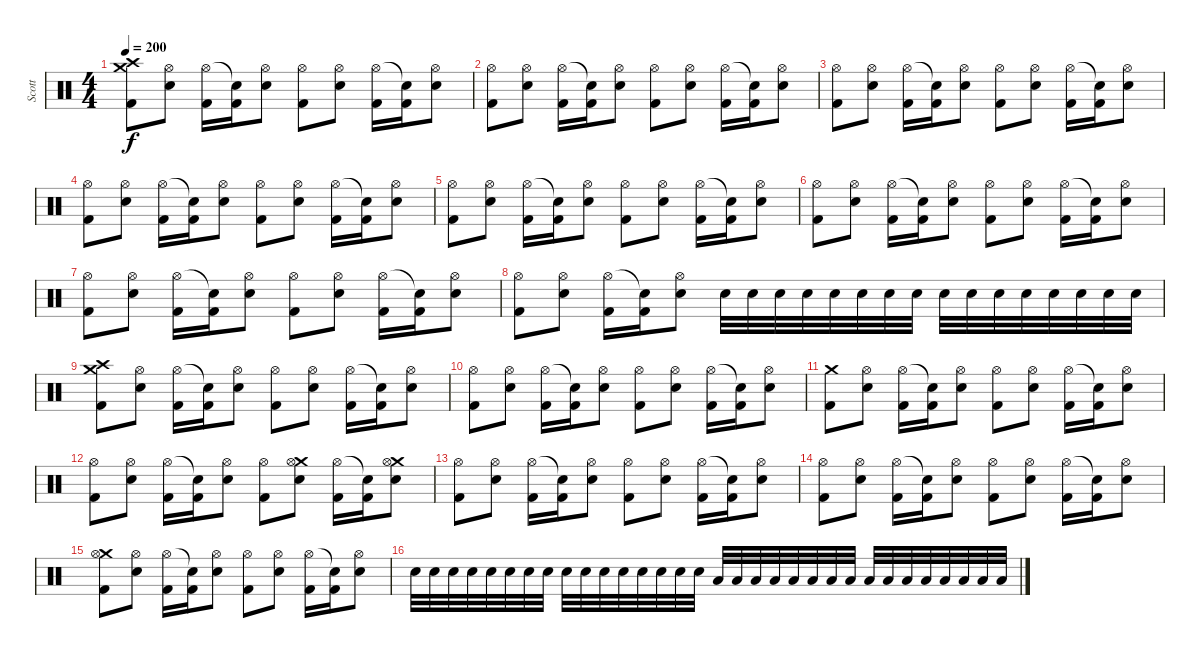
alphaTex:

\track ("Scott" "Scott") {instrument percussion}
\staff {score}
\articulation defaults
\ts (4 4)
\tempo 200
\clef neutral
\ks c
("Crash medium (hit)" "Crash high (hit)" "Kick (hit) 2").8{dy f} ("Hi-Hat (open)" "Snare (hit) 2").8 ("Hi-Hat (open)" "Kick (hit) 2").16 ("Snare (hit)"{t} "Kick (hit) 2").16 ("Hi-Hat (open)" "Snare (hit) 2").8 ("Hi-Hat (open)" "Kick (hit) 2").8 ("Hi-Hat (open)" "Snare (hit) 2").8 ("Hi-Hat (open)" "Kick (hit) 2").16 ("Snare (hit)"{t} "Kick (hit) 2").16 ("Hi-Hat (open)" "Snare (hit) 2").8 |
("Hi-Hat (open)" "Kick (hit) 2").8 ("Hi-Hat (open)" "Snare (hit) 2").8 ("Hi-Hat (open)" "Kick (hit) 2").16 ("Snare (hit)"{t} "Kick (hit) 2").16 ("Hi-Hat (open)" "Snare (hit) 2").8 ("Hi-Hat (open)" "Kick (hit) 2").8 ("Hi-Hat (open)" "Snare (hit) 2").8 ("Hi-Hat (open)" "Kick (hit) 2").16 ("Snare (hit)"{t} "Kick (hit) 2").16 ("Hi-Hat (open)" "Snare (hit) 2").8 |
("Hi-Hat (open)" "Kick (hit) 2").8 ("Hi-Hat (open)" "Snare (hit) 2").8 ("Hi-Hat (open)" "Kick (hit) 2").16 ("Snare (hit)"{t} "Kick (hit) 2").16 ("Hi-Hat (open)" "Snare (hit) 2").8 ("Hi-Hat (open)" "Kick (hit) 2").8 ("Hi-Hat (open)" "Snare (hit) 2").8 ("Hi-Hat (open)" "Kick (hit) 2").16 ("Snare (hit)"{t} "Kick (hit) 2").16 ("Hi-Hat (open)" "Snare (hit) 2").8 |
("Hi-Hat (open)" "Kick (hit) 2").8 ("Hi-Hat (open)" "Snare (hit) 2").8 ("Hi-Hat (open)" "Kick (hit) 2").16 ("Snare (hit)"{t} "Kick (hit) 2").16 ("Hi-Hat (open)" "Snare (hit) 2").8 ("Hi-Hat (open)" "Kick (hit) 2").8 ("Hi-Hat (open)" "Snare (hit) 2").8 ("Hi-Hat (open)" "Kick (hit) 2").16 ("Snare (hit)"{t} "Kick (hit) 2").16 ("Hi-Hat (open)" "Snare (hit) 2").8 |
("Hi-Hat (open)" "Kick (hit) 2").8 ("Hi-Hat (open)" "Snare (hit) 2").8 ("Hi-Hat (open)" "Kick (hit) 2").16 ("Snare (hit)"{t} "Kick (hit) 2").16 ("Hi-Hat (open)" "Snare (hit) 2").8 ("Hi-Hat (open)" "Kick (hit) 2").8 ("Hi-Hat (open)" "Snare (hit) 2").8 ("Hi-Hat (open)" "Kick (hit) 2").16 ("Snare (hit)"{t} "Kick (hit) 2").16 ("Hi-Hat (open)" "Snare (hit) 2").8 |
("Hi-Hat (open)" "Kick (hit) 2").8 ("Hi-Hat (open)" "Snare (hit) 2").8 ("Hi-Hat (open)" "Kick (hit) 2").16 ("Snare (hit)"{t} "Kick (hit) 2").16 ("Hi-Hat (open)" "Snare (hit) 2").8 ("Hi-Hat (open)" "Kick (hit) 2").8 ("Hi-Hat (open)" "Snare (hit) 2").8 ("Hi-Hat (open)" "Kick (hit) 2").16 ("Snare (hit)"{t} "Kick (hit) 2").16 ("Hi-Hat (open)" "Snare (hit) 2").8 |
("Hi-Hat (open)" "Kick (hit) 2").8 ("Hi-Hat (open)" "Snare (hit) 2").8 ("Hi-Hat (open)" "Kick (hit) 2").16 ("Snare (hit)"{t} "Kick (hit) 2").16 ("Hi-Hat (open)" "Snare (hit) 2").8 ("Hi-Hat (open)" "Kick (hit) 2").8 ("Hi-Hat (open)" "Snare (hit) 2").8 ("Hi-Hat (open)" "Kick (hit) 2").16 ("Snare (hit)"{t} "Kick (hit) 2").16 ("Hi-Hat (open)" "Snare (hit) 2").8 |
("Hi-Hat (open)" "Kick (hit) 2").8 ("Hi-Hat (open)" "Snare (hit) 2").8 ("Hi-Hat (open)" "Kick (hit) 2").16 ("Snare (hit)"{t} "Kick (hit) 2").16 ("Hi-Hat (open)" "Snare (hit) 2").8 "Snare (hit) 2".32 "Snare (hit) 2".32 "Snare (hit) 2".32 "Snare (hit) 2".32 "Snare (hit) 2".32 "Snare (hit) 2".32 "Snare (hit) 2".32 "Snare (hit) 2".32 "Snare (hit) 2".32 "Snare (hit) 2".32 "Snare (hit) 2".32 "Snare (hit) 2".32 "Snare (hit) 2".32 "Snare (hit) 2".32 "Snare (hit) 2".32 "Snare (hit) 2".32 |
("Crash medium (hit)" "Crash high (hit)" "Kick (hit) 2").8 ("Hi-Hat (open)" "Snare (hit) 2").8 ("Hi-Hat (open)" "Kick (hit) 2").16 ("Snare (hit)"{t} "Kick (hit) 2").16 ("Hi-Hat (open)" "Snare (hit) 2").8 ("Hi-Hat (open)" "Kick (hit) 2").8 ("Hi-Hat (open)" "Snare (hit) 2").8 ("Hi-Hat (open)" "Kick (hit) 2").16 ("Snare (hit)"{t} "Kick (hit) 2").16 ("Hi-Hat (open)" "Snare (hit) 2").8 |
("Hi-Hat (open)" "Kick (hit) 2").8 ("Hi-Hat (open)" "Snare (hit) 2").8 ("Hi-Hat (open)" "Kick (hit) 2").16 ("Snare (hit)"{t} "Kick (hit) 2").16 ("Hi-Hat (open)" "Snare (hit) 2").8 ("Hi-Hat (open)" "Kick (hit) 2").8 ("Hi-Hat (open)" "Snare (hit) 2").8 ("Hi-Hat (open)" "Kick (hit) 2").16 ("Snare (hit)"{t} "Kick (hit) 2").16 ("Hi-Hat (open)" "Snare (hit) 2").8 |
("Crash medium (hit)" "Kick (hit) 2").8 ("Hi-Hat (open)" "Snare (hit) 2").8 ("Hi-Hat (open)" "Kick (hit) 2").16 ("Snare (hit)"{t} "Kick (hit) 2").16 ("Hi-Hat (open)" "Snare (hit) 2").8 ("Hi-Hat (open)" "Kick (hit) 2").8 ("Hi-Hat (open)" "Snare (hit) 2").8 ("Hi-Hat (open)" "Kick (hit) 2").16 ("Snare (hit)"{t} "Kick (hit) 2").16 ("Hi-Hat (open)" "Snare (hit) 2").8 |
("Hi-Hat (open)" "Kick (hit) 2").8 ("Hi-Hat (open)" "Snare (hit) 2").8 ("Hi-Hat (open)" "Kick (hit) 2").16 ("Snare (hit)"{t} "Kick (hit) 2").16 ("Hi-Hat (open)" "Snare (hit) 2").8 ("Hi-Hat (open)" "Kick (hit) 2").8 ("Crash medium (hit)" "Hi-Hat (open)" "Snare (hit) 2").8 ("Hi-Hat (open)" "Kick (hit) 2").16 ("Snare (hit)"{t} "Kick (hit) 2").16 ("Crash medium (hit)" "Hi-Hat (open)" "Snare (hit) 2").8 |
("Hi-Hat (open)" "Kick (hit) 2").8 ("Hi-Hat (open)" "Snare (hit) 2").8 ("Hi-Hat (open)" "Kick (hit) 2").16 ("Snare (hit)"{t} "Kick (hit) 2").16 ("Hi-Hat (open)" "Snare (hit) 2").8 ("Hi-Hat (open)" "Kick (hit) 2").8 ("Hi-Hat (open)" "Snare (hit) 2").8 ("Hi-Hat (open)" "Kick (hit) 2").16 ("Snare (hit)"{t} "Kick (hit) 2").16 ("Hi-Hat (open)" "Snare (hit) 2").8 |
("Hi-Hat (open)" "Kick (hit) 2").8 ("Hi-Hat (open)" "Snare (hit) 2").8 ("Hi-Hat (open)" "Kick (hit) 2").16 ("Snare (hit)"{t} "Kick (hit) 2").16 ("Hi-Hat (open)" "Snare (hit) 2").8 ("Hi-Hat (open)" "Kick (hit) 2").8 ("Hi-Hat (open)" "Snare (hit) 2").8 ("Hi-Hat (open)" "Kick (hit) 2").16 ("Snare (hit)"{t} "Kick (hit) 2").16 ("Hi-Hat (open)" "Snare (hit) 2").8 |
("Crash medium (hit)" "Hi-Hat (open)" "Kick (hit) 2").8 ("Hi-Hat (open)" "Snare (hit) 2").8 ("Hi-Hat (open)" "Kick (hit) 2").16 ("Snare (hit)"{t} "Kick (hit) 2").16 ("Hi-Hat (open)" "Snare (hit) 2").8 ("Hi-Hat (open)" "Kick (hit) 2").8 ("Hi-Hat (open)" "Snare (hit) 2").8 ("Hi-Hat (open)" "Kick (hit) 2").16 ("Snare (hit)"{t} "Kick (hit) 2").16 ("Hi-Hat (open)" "Snare (hit) 2").8 |
"Snare (hit) 2".32 "Snare (hit) 2".32 "Snare (hit) 2".32 "Snare (hit) 2".32 "Snare (hit) 2".32 "Snare (hit) 2".32 "Snare (hit) 2".32 "Snare (hit) 2".32 "Snare (hit) 2".32 "Snare (hit) 2".32 "Snare (hit) 2".32 "Snare (hit) 2".32 "Snare (hit) 2".32 "Snare (hit) 2".32 "Snare (hit) 2".32 "Snare (hit) 2".32 "Low Tom (hit)".32 "Low Tom (hit)".32 "Low Tom (hit)".32 "Low Tom (hit)".32 "Low Tom (hit)".32 "Low Tom (hit)".32 "Low Tom (hit)".32 "Low Tom (hit)".32 "Low Tom (hit)".32 "Low Tom (hit)".32 "Low Tom (hit)".32 "Low Tom (hit)".32 "Low Tom (hit)".32 "Low Tom (hit)".32 "Low Tom (hit)".32 "Low Tom (hit)".32
